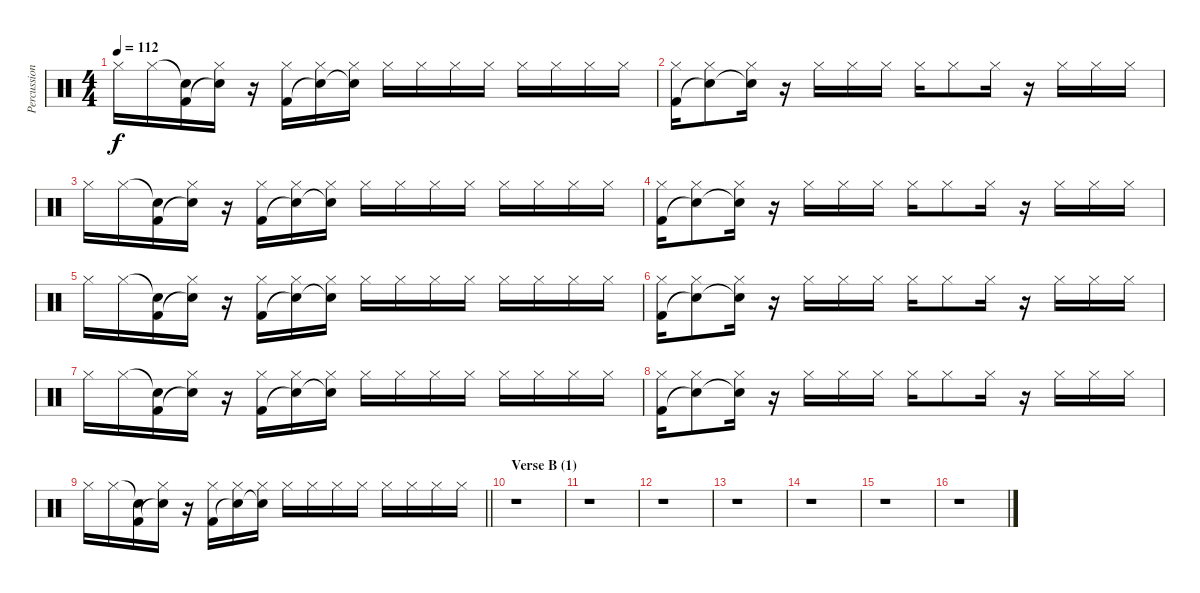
\track ("Percussion" "Percussion") {instrument percussion}
\staff {score}
\articulation defaults
\ts (4 4)
\tempo 112
\clef neutral
\ks c "Hi-Hat (closed)".16{dy f} "Hi-Hat (closed)".16
("Snare (hit)"{t} "Kick (hit) 2").16 ("Hi-Hat (closed)" "Snare (hit)"{t}).16 r.16 ("Hi-Hat (closed)" "Kick (hit) 2").16 ("Hi-Hat (closed)" "Snare (hit)"{t}).16 ("Hi-Hat (closed)" "Snare (hit)"{t}).16 "Hi-Hat (closed)".16 "Hi-Hat (closed)".16 "Hi-Hat (closed)".16 "Hi-Hat (closed)".16 "Hi-Hat (closed)".16 "Hi-Hat (closed)".16 "Hi-Hat (closed)".16 "Hi-Hat (closed)".16 |
("Hi-Hat (closed)" "Kick (hit) 2").16 ("Hi-Hat (closed)" "Snare (hit)"{t}).8 ("Hi-Hat (closed)" "Snare (hit)"{t}).16 r.16 "Hi-Hat (closed)".16 "Hi-Hat (closed)".16 "Hi-Hat (closed)".16 "Hi-Hat (closed)".16 "Hi-Hat (closed)".8 "Hi-Hat (closed)".16 r.16 "Hi-Hat (closed)".16 "Hi-Hat (closed)".16 "Hi-Hat (closed)".16 |
"Hi-Hat (closed)".16 "Hi-Hat (closed)".16 ("Snare (hit)"{t} "Kick (hit) 2").16 ("Hi-Hat (closed)" "Snare (hit)"{t}).16 r.16 ("Hi-Hat (closed)" "Kick (hit) 2").16 ("Hi-Hat (closed)" "Snare (hit)"{t}).16 ("Hi-Hat (closed)" "Snare (hit)"{t}).16 "Hi-Hat (closed)".16 "Hi-Hat (closed)".16 "Hi-Hat (closed)".16 "Hi-Hat (closed)".16 "Hi-Hat (closed)".16 "Hi-Hat (closed)".16 "Hi-Hat (closed)".16 "Hi-Hat (closed)".16 |
("Hi-Hat (closed)" "Kick (hit) 2").16 ("Hi-Hat (closed)" "Snare (hit)"{t}).8 ("Hi-Hat (closed)" "Snare (hit)"{t}).16 r.16 "Hi-Hat (closed)".16 "Hi-Hat (closed)".16 "Hi-Hat (closed)".16 "Hi-Hat (closed)".16 "Hi-Hat (closed)".8 "Hi-Hat (closed)".16 r.16 "Hi-Hat (closed)".16 "Hi-Hat (closed)".16 "Hi-Hat (closed)".16 |
"Hi-Hat (closed)".16 "Hi-Hat (closed)".16 ("Snare (hit)"{t} "Kick (hit) 2").16 ("Hi-Hat (closed)" "Snare (hit)"{t}).16 r.16 ("Hi-Hat (closed)" "Kick (hit) 2").16 ("Hi-Hat (closed)" "Snare (hit)"{t}).16 ("Hi-Hat (closed)" "Snare (hit)"{t}).16 "Hi-Hat (closed)".16 "Hi-Hat (closed)".16 "Hi-Hat (closed)".16 "Hi-Hat (closed)".16 "Hi-Hat (closed)".16 "Hi-Hat (closed)".16 "Hi-Hat (closed)".16 "Hi-Hat (closed)".16 |
("Hi-Hat (closed)" "Kick (hit) 2").16 ("Hi-Hat (closed)" "Snare (hit)"{t}).8 ("Hi-Hat (closed)" "Snare (hit)"{t}).16 r.16 "Hi-Hat (closed)".16 "Hi-Hat (closed)".16 "Hi-Hat (closed)".16 "Hi-Hat (closed)".16 "Hi-Hat (closed)".8 "Hi-Hat (closed)".16 r.16 "Hi-Hat (closed)".16 "Hi-Hat (closed)".16 "Hi-Hat (closed)".16 |
"Hi-Hat (closed)".16 "Hi-Hat (closed)".16 ("Snare (hit)"{t} "Kick (hit) 2").16 ("Hi-Hat (closed)" "Snare (hit)"{t}).16 r.16 ("Hi-Hat (closed)" "Kick (hit) 2").16 ("Hi-Hat (closed)" "Snare (hit)"{t}).16 ("Hi-Hat (closed)" "Snare (hit)"{t}).16 "Hi-Hat (closed)".16 "Hi-Hat (closed)".16 "Hi-Hat (closed)".16 "Hi-Hat (closed)".16 "Hi-Hat (closed)".16 "Hi-Hat (closed)".16 "Hi-Hat (closed)".16 "Hi-Hat (closed)".16 |
("Hi-Hat (closed)" "Kick (hit) 2").16 ("Hi-Hat (closed)" "Snare (hit)"{t}).8 ("Hi-Hat (closed)" "Snare (hit)"{t}).16 r.16 "Hi-Hat (closed)".16 "Hi-Hat (closed)".16 "Hi-Hat (closed)".16 "Hi-Hat (closed)".16 "Hi-Hat (closed)".8 "Hi-Hat (closed)".16 r.16 "Hi-Hat (closed)".16 "Hi-Hat (closed)".16 "Hi-Hat (closed)".16 |
\barLineRight lightlight "Hi-Hat (closed)".16 "Hi-Hat (closed)".16
("Snare (hit)"{t} "Kick (hit) 2").16 ("Hi-Hat (closed)" "Snare (hit)"{t}).16 r.16 ("Hi-Hat (closed)" "Kick (hit) 2").16 ("Hi-Hat (closed)" "Snare (hit)"{t}).16 ("Hi-Hat (closed)" "Snare (hit)"{t}).16 "Hi-Hat (closed)".16 "Hi-Hat (closed)".16 "Hi-Hat (closed)".16 "Hi-Hat (closed)".16 "Hi-Hat (closed)".16 "Hi-Hat (closed)".16 "Hi-Hat (closed)".16 "Hi-Hat (closed)".16 |
\section ("" "Verse B (1)")
r.1 |
r.1 |
r.1 |
r.1 |
r.1 |
r.1 |
r.1
